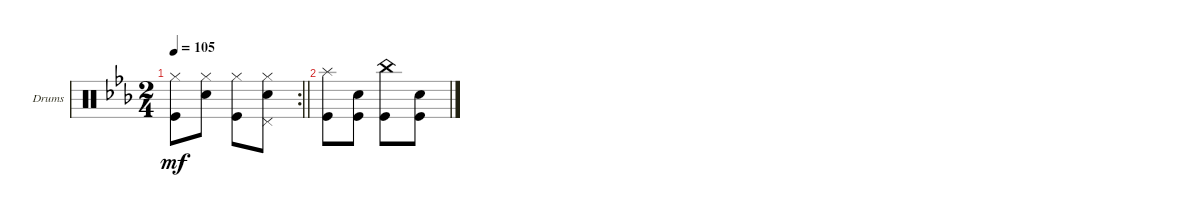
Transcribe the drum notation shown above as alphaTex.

\defaultSystemsLayout 4
\bracketExtendMode groupsimilarinstruments
\firstSystemTrackNameOrientation horizontal
\otherSystemsTrackNameOrientation horizontal
\track ("Drumkit" "Drums") {instrument percussion}
\staff {score}
\articulation defaults
\rc 2
\ts (2 4)
\tempo 105
\clef neutral
\barLineRight lightlight
\ks cminor
("Hi-Hat (closed)" "Kick (hit)").8{dy mf} ("Hi-Hat (closed)" "Snare (hit) 2").8 ("Hi-Hat (closed)" "Kick (hit)").8 ("Hi-Hat (closed)" "Snare (hit) 2" "Pedal Hi-Hat (hit)").8 |
("Kick (hit)" "Splash (hit)").8 ("Snare (hit) 2" "Kick (hit)").8 ("Kick (hit)" "China (hit)").8 ("Snare (hit) 2" "Kick (hit)").8
